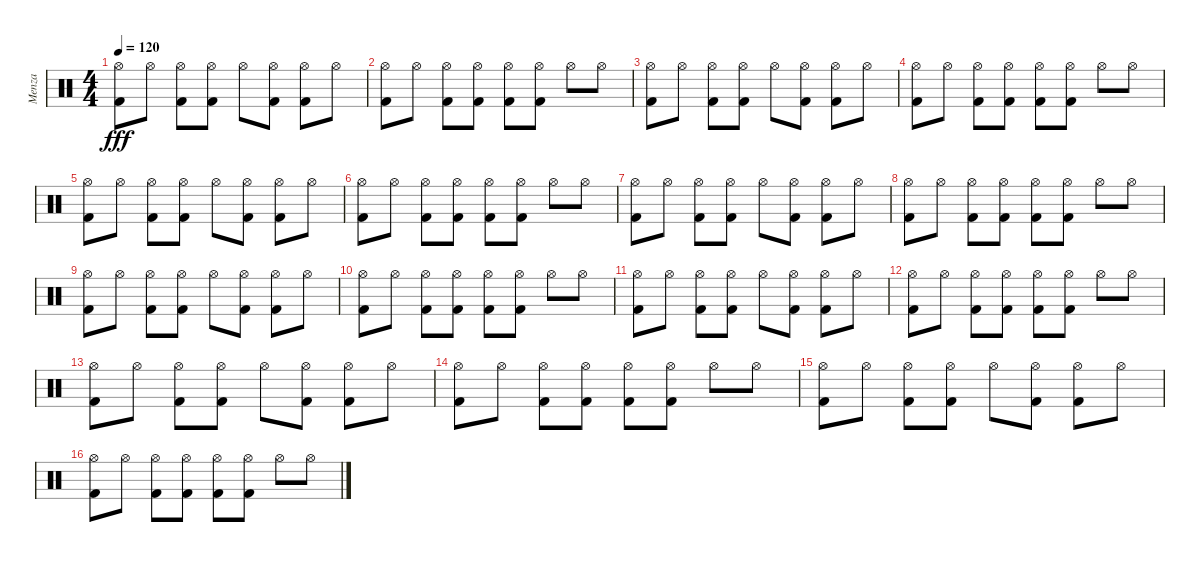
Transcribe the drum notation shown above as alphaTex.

\track ("Menza" "Menza") {instrument percussion}
\staff {score}
\articulation defaults
\ts (4 4)
\tempo 120
\clef neutral
\ks c
("Hi-Hat (open)" "Kick (hit) 2").8{dy fff} "Hi-Hat (open)".8 ("Hi-Hat (open)" "Kick (hit) 2").8 ("Hi-Hat (open)" "Kick (hit) 2").8 "Hi-Hat (open)".8 ("Hi-Hat (open)" "Kick (hit) 2").8 ("Hi-Hat (open)" "Kick (hit) 2").8 "Hi-Hat (open)".8 |
("Hi-Hat (open)" "Kick (hit) 2").8 "Hi-Hat (open)".8 ("Hi-Hat (open)" "Kick (hit) 2").8 ("Hi-Hat (open)" "Kick (hit) 2").8 ("Hi-Hat (open)" "Kick (hit) 2").8 ("Hi-Hat (open)" "Kick (hit) 2").8 "Hi-Hat (open)".8 "Hi-Hat (open)".8 |
("Hi-Hat (open)" "Kick (hit) 2").8 "Hi-Hat (open)".8 ("Hi-Hat (open)" "Kick (hit) 2").8 ("Hi-Hat (open)" "Kick (hit) 2").8 "Hi-Hat (open)".8 ("Hi-Hat (open)" "Kick (hit) 2").8 ("Hi-Hat (open)" "Kick (hit) 2").8 "Hi-Hat (open)".8 |
("Hi-Hat (open)" "Kick (hit) 2").8 "Hi-Hat (open)".8 ("Hi-Hat (open)" "Kick (hit) 2").8 ("Hi-Hat (open)" "Kick (hit) 2").8 ("Hi-Hat (open)" "Kick (hit) 2").8 ("Hi-Hat (open)" "Kick (hit) 2").8 "Hi-Hat (open)".8 "Hi-Hat (open)".8 |
("Hi-Hat (open)" "Kick (hit) 2").8 "Hi-Hat (open)".8 ("Hi-Hat (open)" "Kick (hit) 2").8 ("Hi-Hat (open)" "Kick (hit) 2").8 "Hi-Hat (open)".8 ("Hi-Hat (open)" "Kick (hit) 2").8 ("Hi-Hat (open)" "Kick (hit) 2").8 "Hi-Hat (open)".8 |
("Hi-Hat (open)" "Kick (hit) 2").8 "Hi-Hat (open)".8 ("Hi-Hat (open)" "Kick (hit) 2").8 ("Hi-Hat (open)" "Kick (hit) 2").8 ("Hi-Hat (open)" "Kick (hit) 2").8 ("Hi-Hat (open)" "Kick (hit) 2").8 "Hi-Hat (open)".8 "Hi-Hat (open)".8 |
("Hi-Hat (open)" "Kick (hit) 2").8 "Hi-Hat (open)".8 ("Hi-Hat (open)" "Kick (hit) 2").8 ("Hi-Hat (open)" "Kick (hit) 2").8 "Hi-Hat (open)".8 ("Hi-Hat (open)" "Kick (hit) 2").8 ("Hi-Hat (open)" "Kick (hit) 2").8 "Hi-Hat (open)".8 |
("Hi-Hat (open)" "Kick (hit) 2").8 "Hi-Hat (open)".8 ("Hi-Hat (open)" "Kick (hit) 2").8 ("Hi-Hat (open)" "Kick (hit) 2").8 ("Hi-Hat (open)" "Kick (hit) 2").8 ("Hi-Hat (open)" "Kick (hit) 2").8 "Hi-Hat (open)".8 "Hi-Hat (open)".8 |
("Hi-Hat (open)" "Kick (hit) 2").8 "Hi-Hat (open)".8 ("Hi-Hat (open)" "Kick (hit) 2").8 ("Hi-Hat (open)" "Kick (hit) 2").8 "Hi-Hat (open)".8 ("Hi-Hat (open)" "Kick (hit) 2").8 ("Hi-Hat (open)" "Kick (hit) 2").8 "Hi-Hat (open)".8 |
("Hi-Hat (open)" "Kick (hit) 2").8 "Hi-Hat (open)".8 ("Hi-Hat (open)" "Kick (hit) 2").8 ("Hi-Hat (open)" "Kick (hit) 2").8 ("Hi-Hat (open)" "Kick (hit) 2").8 ("Hi-Hat (open)" "Kick (hit) 2").8 "Hi-Hat (open)".8 "Hi-Hat (open)".8 |
("Hi-Hat (open)" "Kick (hit) 2").8 "Hi-Hat (open)".8 ("Hi-Hat (open)" "Kick (hit) 2").8 ("Hi-Hat (open)" "Kick (hit) 2").8 "Hi-Hat (open)".8 ("Hi-Hat (open)" "Kick (hit) 2").8 ("Hi-Hat (open)" "Kick (hit) 2").8 "Hi-Hat (open)".8 |
("Hi-Hat (open)" "Kick (hit) 2").8 "Hi-Hat (open)".8 ("Hi-Hat (open)" "Kick (hit) 2").8 ("Hi-Hat (open)" "Kick (hit) 2").8 ("Hi-Hat (open)" "Kick (hit) 2").8 ("Hi-Hat (open)" "Kick (hit) 2").8 "Hi-Hat (open)".8 "Hi-Hat (open)".8 |
("Hi-Hat (open)" "Kick (hit) 2").8 "Hi-Hat (open)".8 ("Hi-Hat (open)" "Kick (hit) 2").8 ("Hi-Hat (open)" "Kick (hit) 2").8 "Hi-Hat (open)".8 ("Hi-Hat (open)" "Kick (hit) 2").8 ("Hi-Hat (open)" "Kick (hit) 2").8 "Hi-Hat (open)".8 |
("Hi-Hat (open)" "Kick (hit) 2").8 "Hi-Hat (open)".8 ("Hi-Hat (open)" "Kick (hit) 2").8 ("Hi-Hat (open)" "Kick (hit) 2").8 ("Hi-Hat (open)" "Kick (hit) 2").8 ("Hi-Hat (open)" "Kick (hit) 2").8 "Hi-Hat (open)".8 "Hi-Hat (open)".8 |
("Hi-Hat (open)" "Kick (hit) 2").8 "Hi-Hat (open)".8 ("Hi-Hat (open)" "Kick (hit) 2").8 ("Hi-Hat (open)" "Kick (hit) 2").8 "Hi-Hat (open)".8 ("Hi-Hat (open)" "Kick (hit) 2").8 ("Hi-Hat (open)" "Kick (hit) 2").8 "Hi-Hat (open)".8 |
("Hi-Hat (open)" "Kick (hit) 2").8 "Hi-Hat (open)".8 ("Hi-Hat (open)" "Kick (hit) 2").8 ("Hi-Hat (open)" "Kick (hit) 2").8 ("Hi-Hat (open)" "Kick (hit) 2").8 ("Hi-Hat (open)" "Kick (hit) 2").8 "Hi-Hat (open)".8 "Hi-Hat (open)".8
